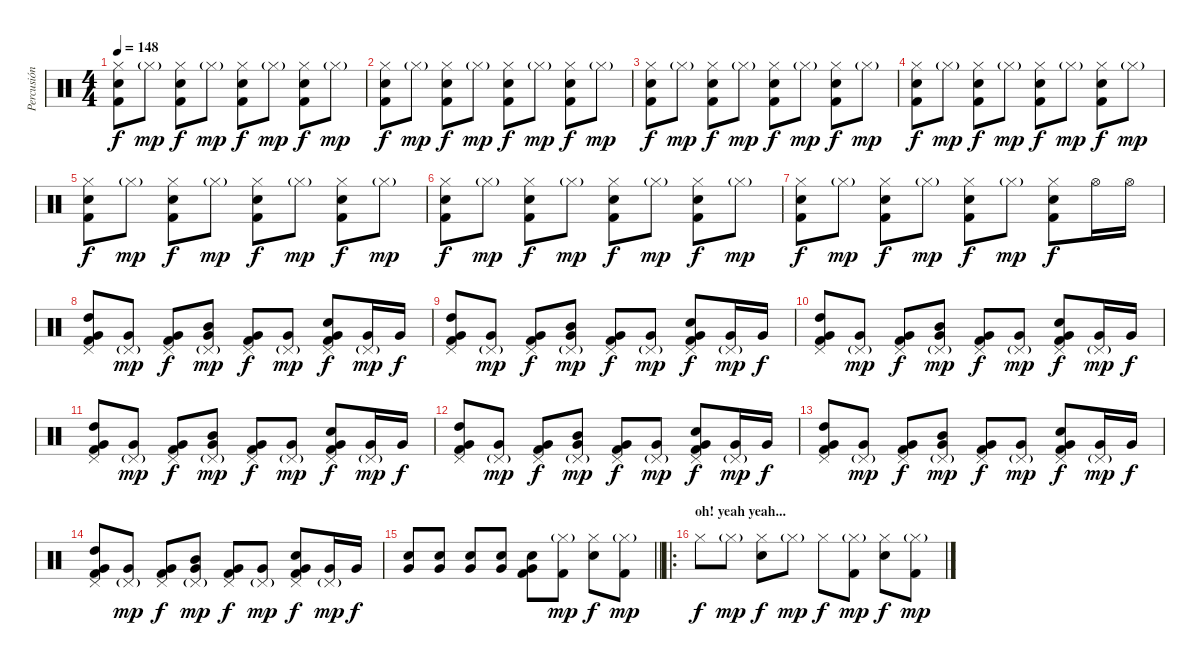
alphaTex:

\track ("Percusión" "Percusión") {instrument percussion}
\staff {score}
\articulation defaults
\ts (4 4)
\tempo 148
\clef neutral
\ks c
("Hi-Hat (closed)" "Snare (hit) 2" "Kick (hit) 2").8{dy f} "Hi-Hat (closed)"{g}.8{dy mp} ("Hi-Hat (closed)" "Snare (hit) 2" "Kick (hit) 2").8{dy f} "Hi-Hat (closed)"{g}.8{dy mp} ("Hi-Hat (closed)" "Snare (hit) 2" "Kick (hit) 2").8{dy f} "Hi-Hat (closed)"{g}.8{dy mp} ("Hi-Hat (closed)" "Snare (hit) 2" "Kick (hit) 2").8{dy f} "Hi-Hat (closed)"{g}.8{dy mp} |
("Hi-Hat (closed)" "Snare (hit) 2" "Kick (hit) 2").8{dy f} "Hi-Hat (closed)"{g}.8{dy mp} ("Hi-Hat (closed)" "Snare (hit) 2" "Kick (hit) 2").8{dy f} "Hi-Hat (closed)"{g}.8{dy mp} ("Hi-Hat (closed)" "Snare (hit) 2" "Kick (hit) 2").8{dy f} "Hi-Hat (closed)"{g}.8{dy mp} ("Hi-Hat (closed)" "Snare (hit) 2" "Kick (hit) 2").8{dy f} "Hi-Hat (closed)"{g}.8{dy mp} |
("Hi-Hat (closed)" "Snare (hit) 2" "Kick (hit) 2").8{dy f} "Hi-Hat (closed)"{g}.8{dy mp} ("Hi-Hat (closed)" "Snare (hit) 2" "Kick (hit) 2").8{dy f} "Hi-Hat (closed)"{g}.8{dy mp} ("Hi-Hat (closed)" "Snare (hit) 2" "Kick (hit) 2").8{dy f} "Hi-Hat (closed)"{g}.8{dy mp} ("Hi-Hat (closed)" "Snare (hit) 2" "Kick (hit) 2").8{dy f} "Hi-Hat (closed)"{g}.8{dy mp} |
("Hi-Hat (closed)" "Snare (hit) 2" "Kick (hit) 2").8{dy f} "Hi-Hat (closed)"{g}.8{dy mp} ("Hi-Hat (closed)" "Snare (hit) 2" "Kick (hit) 2").8{dy f} "Hi-Hat (closed)"{g}.8{dy mp} ("Hi-Hat (closed)" "Snare (hit) 2" "Kick (hit) 2").8{dy f} "Hi-Hat (closed)"{g}.8{dy mp} ("Hi-Hat (closed)" "Snare (hit) 2" "Kick (hit) 2").8{dy f} "Hi-Hat (closed)"{g}.8{dy mp} |
("Hi-Hat (closed)" "Snare (hit) 2" "Kick (hit) 2").8{dy f} "Hi-Hat (closed)"{g}.8{dy mp} ("Hi-Hat (closed)" "Snare (hit) 2" "Kick (hit) 2").8{dy f} "Hi-Hat (closed)"{g}.8{dy mp} ("Hi-Hat (closed)" "Snare (hit) 2" "Kick (hit) 2").8{dy f} "Hi-Hat (closed)"{g}.8{dy mp} ("Hi-Hat (closed)" "Snare (hit) 2" "Kick (hit) 2").8{dy f} "Hi-Hat (closed)"{g}.8{dy mp} |
("Hi-Hat (closed)" "Snare (hit) 2" "Kick (hit) 2").8{dy f} "Hi-Hat (closed)"{g}.8{dy mp} ("Hi-Hat (closed)" "Snare (hit) 2" "Kick (hit) 2").8{dy f} "Hi-Hat (closed)"{g}.8{dy mp} ("Hi-Hat (closed)" "Snare (hit) 2" "Kick (hit) 2").8{dy f} "Hi-Hat (closed)"{g}.8{dy mp} ("Hi-Hat (closed)" "Snare (hit) 2" "Kick (hit) 2").8{dy f} "Hi-Hat (closed)"{g}.8{dy mp} |
("Hi-Hat (closed)" "Snare (hit) 2" "Kick (hit) 2").8{dy f} "Hi-Hat (closed)"{g}.8{dy mp} ("Hi-Hat (closed)" "Snare (hit) 2" "Kick (hit) 2").8{dy f} "Hi-Hat (closed)"{g}.8{dy mp} ("Hi-Hat (closed)" "Snare (hit) 2" "Kick (hit) 2").8{dy f} "Hi-Hat (closed)"{g}.8{dy mp} ("Hi-Hat (closed)" "Snare (hit) 2" "Kick (hit) 2").8{dy f} "Hi-Hat (open)".16 "Hi-Hat (open)".16 |
("Pedal Hi-Hat (hit)" "Very Low Tom (hit)" "High Tom (hit)" "Kick (hit) 2").8 ("Pedal Hi-Hat (hit)"{g} "Very Low Tom (hit)").8{dy mp} ("Pedal Hi-Hat (hit)" "Very Low Tom (hit)" "Kick (hit) 2").8{dy f} ("Pedal Hi-Hat (hit)"{g} "Very Low Tom (hit)" "Mid Tom (hit)").8{dy mp} ("Pedal Hi-Hat (hit)" "Very Low Tom (hit)" "Kick (hit) 2").8{dy f} ("Pedal Hi-Hat (hit)"{g} "Very Low Tom (hit)").8{dy mp} ("Pedal Hi-Hat (hit)" "Very Low Tom (hit)" "Snare (hit) 2" "Kick (hit) 2").8{dy f} ("Pedal Hi-Hat (hit)"{g} "Very Low Tom (hit)").16{dy mp} "Very Low Tom (hit)".16{dy f} |
("Pedal Hi-Hat (hit)" "Very Low Tom (hit)" "High Tom (hit)" "Kick (hit) 2").8 ("Pedal Hi-Hat (hit)"{g} "Very Low Tom (hit)").8{dy mp} ("Pedal Hi-Hat (hit)" "Very Low Tom (hit)" "Kick (hit) 2").8{dy f} ("Pedal Hi-Hat (hit)"{g} "Very Low Tom (hit)" "Mid Tom (hit)").8{dy mp} ("Pedal Hi-Hat (hit)" "Very Low Tom (hit)" "Kick (hit) 2").8{dy f} ("Pedal Hi-Hat (hit)"{g} "Very Low Tom (hit)").8{dy mp} ("Pedal Hi-Hat (hit)" "Very Low Tom (hit)" "Snare (hit) 2" "Kick (hit) 2").8{dy f} ("Pedal Hi-Hat (hit)"{g} "Very Low Tom (hit)").16{dy mp} "Very Low Tom (hit)".16{dy f} |
("Pedal Hi-Hat (hit)" "Very Low Tom (hit)" "High Tom (hit)" "Kick (hit) 2").8 ("Pedal Hi-Hat (hit)"{g} "Very Low Tom (hit)").8{dy mp} ("Pedal Hi-Hat (hit)" "Very Low Tom (hit)" "Kick (hit) 2").8{dy f} ("Pedal Hi-Hat (hit)"{g} "Very Low Tom (hit)" "Mid Tom (hit)").8{dy mp} ("Pedal Hi-Hat (hit)" "Very Low Tom (hit)" "Kick (hit) 2").8{dy f} ("Pedal Hi-Hat (hit)"{g} "Very Low Tom (hit)").8{dy mp} ("Pedal Hi-Hat (hit)" "Very Low Tom (hit)" "Snare (hit) 2" "Kick (hit) 2").8{dy f} ("Pedal Hi-Hat (hit)"{g} "Very Low Tom (hit)").16{dy mp} "Very Low Tom (hit)".16{dy f} |
("Pedal Hi-Hat (hit)" "Very Low Tom (hit)" "High Tom (hit)" "Kick (hit) 2").8 ("Pedal Hi-Hat (hit)"{g} "Very Low Tom (hit)").8{dy mp} ("Pedal Hi-Hat (hit)" "Very Low Tom (hit)" "Kick (hit) 2").8{dy f} ("Pedal Hi-Hat (hit)"{g} "Very Low Tom (hit)" "Mid Tom (hit)").8{dy mp} ("Pedal Hi-Hat (hit)" "Very Low Tom (hit)" "Kick (hit) 2").8{dy f} ("Pedal Hi-Hat (hit)"{g} "Very Low Tom (hit)").8{dy mp} ("Pedal Hi-Hat (hit)" "Very Low Tom (hit)" "Snare (hit) 2" "Kick (hit) 2").8{dy f} ("Pedal Hi-Hat (hit)"{g} "Very Low Tom (hit)").16{dy mp} "Very Low Tom (hit)".16{dy f} |
("Pedal Hi-Hat (hit)" "Very Low Tom (hit)" "High Tom (hit)" "Kick (hit) 2").8 ("Pedal Hi-Hat (hit)"{g} "Very Low Tom (hit)").8{dy mp} ("Pedal Hi-Hat (hit)" "Very Low Tom (hit)" "Kick (hit) 2").8{dy f} ("Pedal Hi-Hat (hit)"{g} "Very Low Tom (hit)" "Mid Tom (hit)").8{dy mp} ("Pedal Hi-Hat (hit)" "Very Low Tom (hit)" "Kick (hit) 2").8{dy f} ("Pedal Hi-Hat (hit)"{g} "Very Low Tom (hit)").8{dy mp} ("Pedal Hi-Hat (hit)" "Very Low Tom (hit)" "Snare (hit) 2" "Kick (hit) 2").8{dy f} ("Pedal Hi-Hat (hit)"{g} "Very Low Tom (hit)").16{dy mp} "Very Low Tom (hit)".16{dy f} |
("Pedal Hi-Hat (hit)" "Very Low Tom (hit)" "High Tom (hit)" "Kick (hit) 2").8 ("Pedal Hi-Hat (hit)"{g} "Very Low Tom (hit)").8{dy mp} ("Pedal Hi-Hat (hit)" "Very Low Tom (hit)" "Kick (hit) 2").8{dy f} ("Pedal Hi-Hat (hit)"{g} "Very Low Tom (hit)" "Mid Tom (hit)").8{dy mp} ("Pedal Hi-Hat (hit)" "Very Low Tom (hit)" "Kick (hit) 2").8{dy f} ("Pedal Hi-Hat (hit)"{g} "Very Low Tom (hit)").8{dy mp} ("Pedal Hi-Hat (hit)" "Very Low Tom (hit)" "Snare (hit) 2" "Kick (hit) 2").8{dy f} ("Pedal Hi-Hat (hit)"{g} "Very Low Tom (hit)").16{dy mp} "Very Low Tom (hit)".16{dy f} |
("Pedal Hi-Hat (hit)" "Very Low Tom (hit)" "High Tom (hit)" "Kick (hit) 2").8 ("Pedal Hi-Hat (hit)"{g} "Very Low Tom (hit)").8{dy mp} ("Pedal Hi-Hat (hit)" "Very Low Tom (hit)" "Kick (hit) 2").8{dy f} ("Pedal Hi-Hat (hit)"{g} "Very Low Tom (hit)" "Mid Tom (hit)").8{dy mp} ("Pedal Hi-Hat (hit)" "Very Low Tom (hit)" "Kick (hit) 2").8{dy f} ("Pedal Hi-Hat (hit)"{g} "Very Low Tom (hit)").8{dy mp} ("Pedal Hi-Hat (hit)" "Very Low Tom (hit)" "Snare (hit) 2" "Kick (hit) 2").8{dy f} ("Pedal Hi-Hat (hit)"{g} "Very Low Tom (hit)").16{dy mp} "Very Low Tom (hit)".16{dy f} |
\barLineRight lightlight
("Very Low Tom (hit)" "Snare (hit) 2").8 ("Very Low Tom (hit)" "Snare (hit) 2").8 ("Very Low Tom (hit)" "Snare (hit) 2").8 ("Very Low Tom (hit)" "Snare (hit) 2").8 ("Very Low Tom (hit)" "Snare (hit) 2" "Kick (hit) 2").8 ("Hi-Hat (closed)"{g} "Kick (hit) 2").8{dy mp} ("Hi-Hat (closed)" "Snare (hit) 2").8{dy f} ("Hi-Hat (closed)"{g} "Kick (hit) 2").8{dy mp} |
\ro
\section ("" "oh! yeah yeah...")
"Hi-Hat (closed)".8{dy f} "Hi-Hat (closed)"{g}.8{dy mp} ("Hi-Hat (closed)" "Snare (hit) 2").8{dy f} "Hi-Hat (closed)"{g}.8{dy mp} "Hi-Hat (closed)".8{dy f} ("Hi-Hat (closed)"{g} "Kick (hit) 2").8{dy mp} ("Hi-Hat (closed)" "Snare (hit) 2").8{dy f} ("Hi-Hat (closed)"{g} "Kick (hit) 2").8{dy mp}
